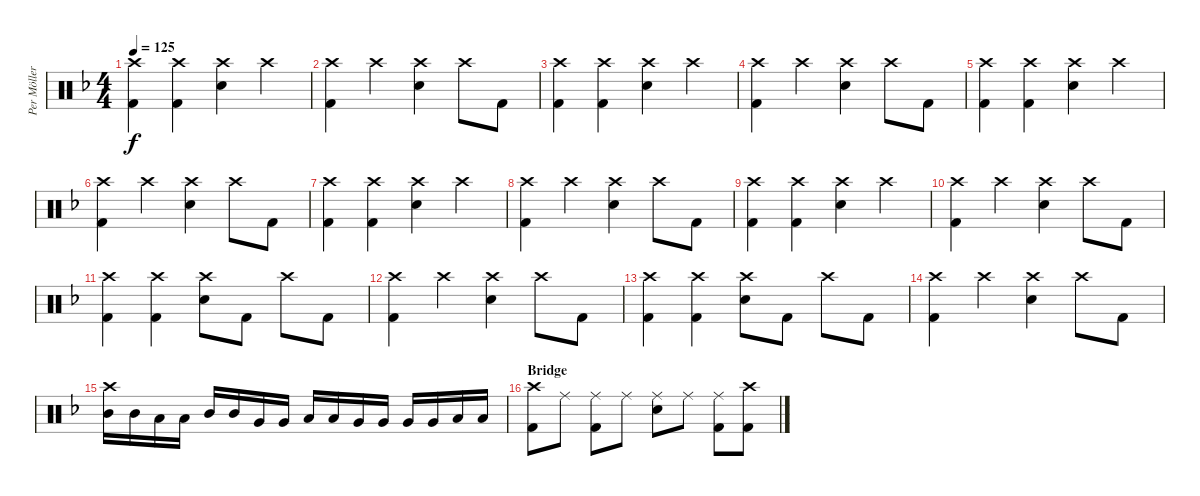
\track ("Per Möller Jensen" "Per Möller") {instrument percussion}
\staff {score}
\articulation defaults
\ts (4 4)
\tempo 125
\clef neutral
\ks dminor
("Crash high (hit)" "Kick (hit) 2").4{dy f} ("Crash high (hit)" "Kick (hit) 2").4 ("Crash high (hit)" "Electric Snare (hit)").4 "Crash high (hit)".4 |
("Crash high (hit)" "Kick (hit) 2").4 "Crash high (hit)".4 ("Crash high (hit)" "Electric Snare (hit)").4 "Crash high (hit)".8 "Kick (hit) 2".8 |
("Crash high (hit)" "Kick (hit) 2").4 ("Crash high (hit)" "Kick (hit) 2").4 ("Crash high (hit)" "Electric Snare (hit)").4 "Crash high (hit)".4 |
("Crash high (hit)" "Kick (hit) 2").4 "Crash high (hit)".4 ("Crash high (hit)" "Electric Snare (hit)").4 "Crash high (hit)".8 "Kick (hit) 2".8 |
("Crash high (hit)" "Kick (hit) 2").4 ("Crash high (hit)" "Kick (hit) 2").4 ("Crash high (hit)" "Electric Snare (hit)").4 "Crash high (hit)".4 |
("Crash high (hit)" "Kick (hit) 2").4 "Crash high (hit)".4 ("Crash high (hit)" "Electric Snare (hit)").4 "Crash high (hit)".8 "Kick (hit) 2".8 |
("Crash high (hit)" "Kick (hit) 2").4 ("Crash high (hit)" "Kick (hit) 2").4 ("Crash high (hit)" "Electric Snare (hit)").4 "Crash high (hit)".4 |
("Crash high (hit)" "Kick (hit) 2").4 "Crash high (hit)".4 ("Crash high (hit)" "Electric Snare (hit)").4 "Crash high (hit)".8 "Kick (hit) 2".8 |
("Crash high (hit)" "Kick (hit) 2").4 ("Crash high (hit)" "Kick (hit) 2").4 ("Crash high (hit)" "Electric Snare (hit)").4 "Crash high (hit)".4 |
("Crash high (hit)" "Kick (hit) 2").4 "Crash high (hit)".4 ("Crash high (hit)" "Electric Snare (hit)").4 "Crash high (hit)".8 "Kick (hit) 2".8 |
("Crash high (hit)" "Kick (hit) 2").4 ("Crash high (hit)" "Kick (hit) 2").4 ("Crash high (hit)" "Electric Snare (hit)").8 "Kick (hit) 2".8 "Crash high (hit)".8 "Kick (hit) 2".8 |
("Crash high (hit)" "Kick (hit) 2").4 "Crash high (hit)".4 ("Crash high (hit)" "Electric Snare (hit)").4 "Crash high (hit)".8 "Kick (hit) 2".8 |
("Crash high (hit)" "Kick (hit) 2").4 ("Crash high (hit)" "Kick (hit) 2").4 ("Crash high (hit)" "Electric Snare (hit)").8 "Kick (hit) 2".8 "Crash high (hit)".8 "Kick (hit) 2".8 |
("Crash high (hit)" "Kick (hit) 2").4 "Crash high (hit)".4 ("Crash high (hit)" "Electric Snare (hit)").4 "Crash high (hit)".8 "Kick (hit) 2".8 |
("Crash high (hit)" "Mid Tom (hit)").16 "Mid Tom (hit)".16 "Low Tom (hit)".16 "Low Tom (hit)".16 "Mid Tom (hit)".16 "Mid Tom (hit)".16 "Very Low Tom (hit)".16 "Very Low Tom (hit)".16 "Low Tom (hit)".16 "Low Tom (hit)".16 "Very Low Tom (hit)".16 "Very Low Tom (hit)".16 "Very Low Tom (hit)".16 "Very Low Tom (hit)".16 "Low Floor Tom (hit)".16 "Low Floor Tom (hit)".16 |
\section ("" "Bridge")
("Crash high (hit)" "Kick (hit) 2").8 "Ride (middle)".8 ("Ride (middle)" "Kick (hit) 2").8 "Ride (middle)".8 ("Ride (middle)" "Electric Snare (hit)").8 "Ride (middle)".8 ("Ride (middle)" "Kick (hit) 2").8 ("Crash high (hit)" "Kick (hit) 2").8
